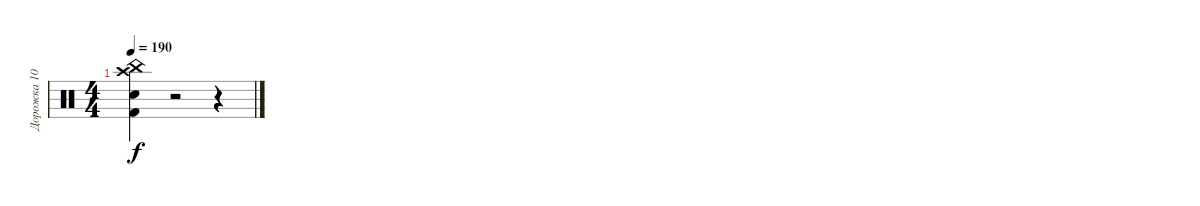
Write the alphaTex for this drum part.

\track ("Дорожка 10" "Дорожка 10") {instrument percussion}
\staff {score}
\articulation defaults
\ts (4 4)
\tempo 190
\clef neutral
\ks c
("China (hit)" "Electric Snare (hit)" "Kick (hit) 2" "Crash high (hit)").4{dy f} r.2 r.4
